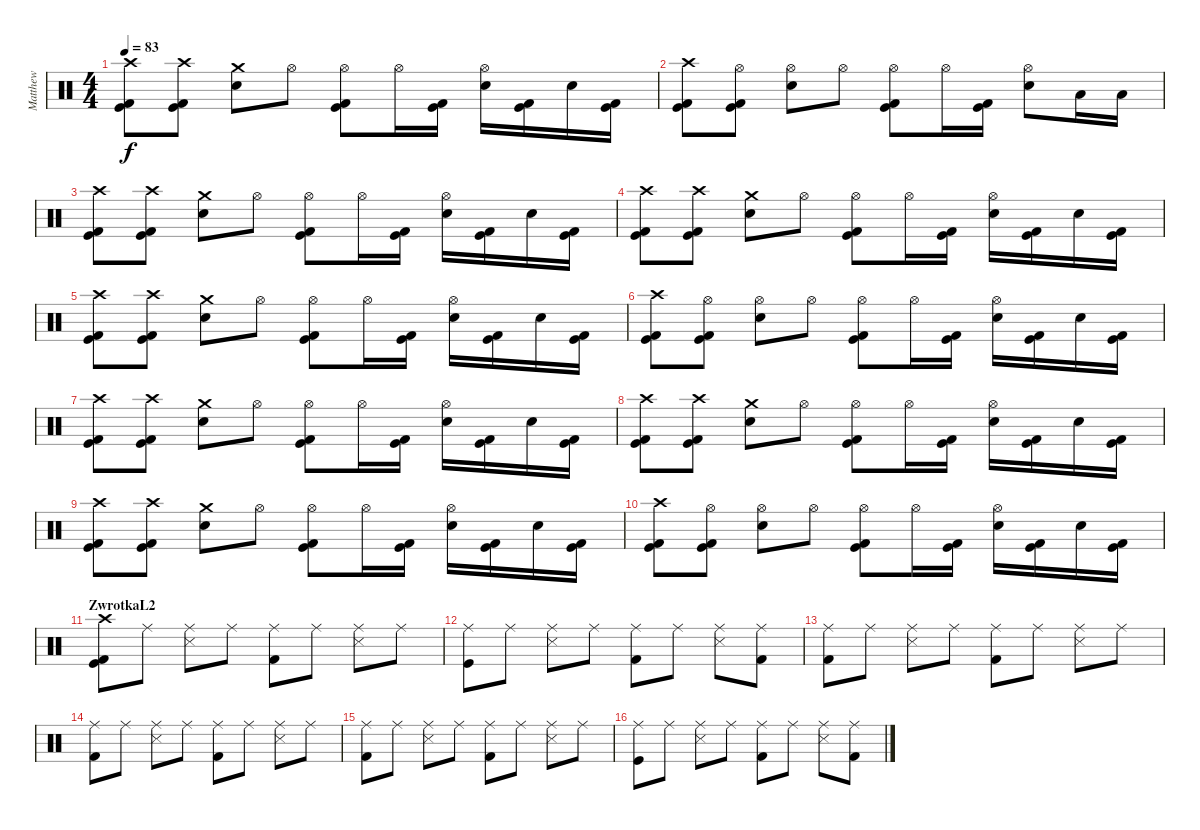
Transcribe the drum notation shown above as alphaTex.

\track ("Matthew" "Matthew") {instrument percussion}
\staff {score}
\articulation defaults
\ts (4 4)
\tempo 83
\clef neutral
\ks c
("Kick (hit) 2" "Kick (hit)" "Crash high (hit)").8{dy f} ("Kick (hit)" "Kick (hit) 2" "Crash high (hit)").8 ("Snare (hit) 2" "Crash medium (hit)").8 "Hi-Hat (open)".8 ("Kick (hit) 2" "Kick (hit)" "Hi-Hat (open)").8 "Hi-Hat (open)".16 ("Kick (hit) 2" "Kick (hit)").16 ("Snare (hit) 2" "Hi-Hat (open)").16 ("Kick (hit) 2" "Kick (hit)").16 "Snare (hit) 2".16 ("Kick (hit) 2" "Kick (hit)").16 |
("Kick (hit) 2" "Kick (hit)" "Crash high (hit)").8 ("Kick (hit) 2" "Kick (hit)" "Hi-Hat (open)").8 ("Snare (hit) 2" "Hi-Hat (open)").8 "Hi-Hat (open)".8 ("Kick (hit)" "Kick (hit) 2" "Hi-Hat (open)").8 "Hi-Hat (open)".16 ("Kick (hit) 2" "Kick (hit)").16 ("Snare (hit) 2" "Hi-Hat (open)").8 "Low Tom (hit)".16 "Low Floor Tom (hit)".16 |
("Kick (hit) 2" "Kick (hit)" "Crash high (hit)").8 ("Kick (hit)" "Kick (hit) 2" "Crash high (hit)").8 ("Snare (hit) 2" "Crash medium (hit)").8 "Hi-Hat (open)".8 ("Kick (hit) 2" "Kick (hit)" "Hi-Hat (open)").8 "Hi-Hat (open)".16 ("Kick (hit) 2" "Kick (hit)").16 ("Snare (hit) 2" "Hi-Hat (open)").16 ("Kick (hit) 2" "Kick (hit)").16 "Snare (hit) 2".16 ("Kick (hit) 2" "Kick (hit)").16 |
("Kick (hit) 2" "Kick (hit)" "Crash high (hit)").8 ("Kick (hit)" "Kick (hit) 2" "Crash high (hit)").8 ("Snare (hit) 2" "Crash medium (hit)").8 "Hi-Hat (open)".8 ("Kick (hit) 2" "Kick (hit)" "Hi-Hat (open)").8 "Hi-Hat (open)".16 ("Kick (hit) 2" "Kick (hit)").16 ("Snare (hit) 2" "Hi-Hat (open)").16 ("Kick (hit) 2" "Kick (hit)").16 "Snare (hit) 2".16 ("Kick (hit) 2" "Kick (hit)").16 |
("Kick (hit) 2" "Kick (hit)" "Crash high (hit)").8 ("Kick (hit)" "Kick (hit) 2" "Crash high (hit)").8 ("Snare (hit) 2" "Crash medium (hit)").8 "Hi-Hat (open)".8 ("Kick (hit) 2" "Kick (hit)" "Hi-Hat (open)").8 "Hi-Hat (open)".16 ("Kick (hit) 2" "Kick (hit)").16 ("Snare (hit) 2" "Hi-Hat (open)").16 ("Kick (hit) 2" "Kick (hit)").16 "Snare (hit) 2".16 ("Kick (hit) 2" "Kick (hit)").16 |
("Kick (hit) 2" "Kick (hit)" "Crash high (hit)").8 ("Kick (hit) 2" "Kick (hit)" "Hi-Hat (open)").8 ("Snare (hit) 2" "Hi-Hat (open)").8 "Hi-Hat (open)".8 ("Kick (hit)" "Kick (hit) 2" "Hi-Hat (open)").8 "Hi-Hat (open)".16 ("Kick (hit) 2" "Kick (hit)").16 ("Snare (hit) 2" "Hi-Hat (open)").16 ("Kick (hit) 2" "Kick (hit)").16 "Snare (hit) 2".16 ("Kick (hit) 2" "Kick (hit)").16 |
("Kick (hit) 2" "Kick (hit)" "Crash high (hit)").8 ("Kick (hit)" "Kick (hit) 2" "Crash high (hit)").8 ("Snare (hit) 2" "Crash medium (hit)").8 "Hi-Hat (open)".8 ("Kick (hit) 2" "Kick (hit)" "Hi-Hat (open)").8 "Hi-Hat (open)".16 ("Kick (hit) 2" "Kick (hit)").16 ("Snare (hit) 2" "Hi-Hat (open)").16 ("Kick (hit) 2" "Kick (hit)").16 "Snare (hit) 2".16 ("Kick (hit) 2" "Kick (hit)").16 |
("Kick (hit) 2" "Kick (hit)" "Crash high (hit)").8 ("Kick (hit)" "Kick (hit) 2" "Crash high (hit)").8 ("Snare (hit) 2" "Crash medium (hit)").8 "Hi-Hat (open)".8 ("Kick (hit) 2" "Kick (hit)" "Hi-Hat (open)").8 "Hi-Hat (open)".16 ("Kick (hit) 2" "Kick (hit)").16 ("Snare (hit) 2" "Hi-Hat (open)").16 ("Kick (hit) 2" "Kick (hit)").16 "Snare (hit) 2".16 ("Kick (hit) 2" "Kick (hit)").16 |
("Kick (hit) 2" "Kick (hit)" "Crash high (hit)").8 ("Kick (hit)" "Kick (hit) 2" "Crash high (hit)").8 ("Snare (hit) 2" "Crash medium (hit)").8 "Hi-Hat (open)".8 ("Kick (hit) 2" "Kick (hit)" "Hi-Hat (open)").8 "Hi-Hat (open)".16 ("Kick (hit) 2" "Kick (hit)").16 ("Snare (hit) 2" "Hi-Hat (open)").16 ("Kick (hit) 2" "Kick (hit)").16 "Snare (hit) 2".16 ("Kick (hit) 2" "Kick (hit)").16 |
("Kick (hit) 2" "Kick (hit)" "Crash high (hit)").8 ("Kick (hit) 2" "Kick (hit)" "Hi-Hat (open)").8 ("Snare (hit) 2" "Hi-Hat (open)").8 "Hi-Hat (open)".8 ("Kick (hit)" "Kick (hit) 2" "Hi-Hat (open)").8 "Hi-Hat (open)".16 ("Kick (hit) 2" "Kick (hit)").16 ("Snare (hit) 2" "Hi-Hat (open)").16 ("Kick (hit) 2" "Kick (hit)").16 "Snare (hit) 2".16 ("Kick (hit) 2" "Kick (hit)").16 |
\section ("" "ZwrotkaL2")
("Kick (hit) 2" "Kick (hit)" "Crash high (hit)").8 "Ride (middle)".8 ("Ride (middle)" "Snare (side stick) 3").8 "Ride (middle)".8 ("Kick (hit) 2" "Ride (middle)").8 "Ride (middle)".8 ("Ride (middle)" "Snare (side stick) 3").8 "Ride (middle)".8 |
("Kick (hit)" "Ride (middle)").8 "Ride (middle)".8 ("Ride (middle)" "Snare (side stick) 3").8 "Ride (middle)".8 ("Ride (middle)" "Kick (hit) 2").8 "Ride (middle)".8 ("Ride (middle)" "Snare (side stick) 3").8 ("Ride (middle)" "Kick (hit) 2").8 |
("Kick (hit) 2" "Ride (middle)").8 "Ride (middle)".8 ("Ride (middle)" "Snare (side stick) 3").8 "Ride (middle)".8 ("Kick (hit) 2" "Ride (middle)").8 "Ride (middle)".8 ("Ride (middle)" "Snare (side stick) 3").8 "Ride (middle)".8 |
("Kick (hit) 2" "Ride (middle)").8 "Ride (middle)".8 ("Ride (middle)" "Snare (side stick) 3").8 "Ride (middle)".8 ("Kick (hit) 2" "Ride (middle)").8 "Ride (middle)".8 ("Ride (middle)" "Snare (side stick) 3").8 "Ride (middle)".8 |
("Kick (hit) 2" "Ride (middle)").8 "Ride (middle)".8 ("Ride (middle)" "Snare (side stick) 3").8 "Ride (middle)".8 ("Kick (hit) 2" "Ride (middle)").8 "Ride (middle)".8 ("Ride (middle)" "Snare (side stick) 3").8 "Ride (middle)".8 |
("Kick (hit)" "Ride (middle)").8 "Ride (middle)".8 ("Ride (middle)" "Snare (side stick) 3").8 "Ride (middle)".8 ("Ride (middle)" "Kick (hit) 2").8 "Ride (middle)".8 ("Ride (middle)" "Snare (side stick) 3").8 ("Ride (middle)" "Kick (hit) 2").8
